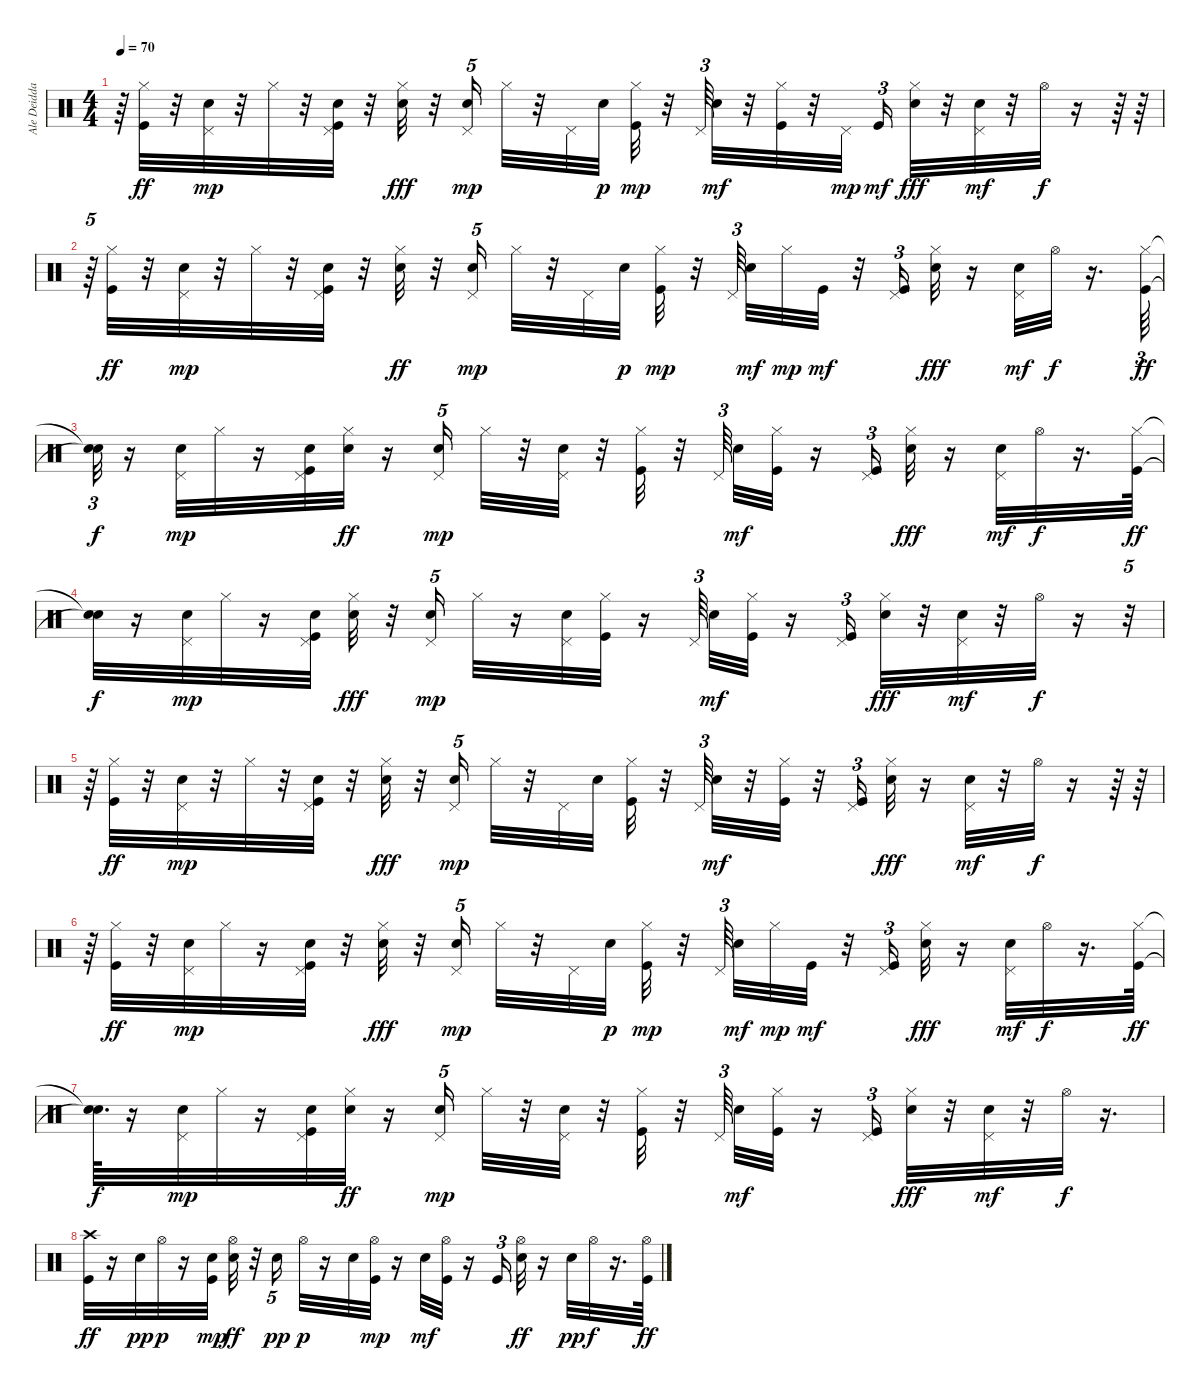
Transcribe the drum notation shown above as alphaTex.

\track ("Ale Deidda" "Ale Deidda") {instrument percussion}
\staff {score}
\articulation defaults
\ts (4 4)
\tempo 70
\clef neutral
\ks c
r.64{dy f} ("Kick (hit)" "Hi-Hat (closed)").32{dy ff} r.32 ("Snare (hit) 2" "Pedal Hi-Hat (hit)").32{dy mp} r.32 "Hi-Hat (closed)".32 r.32 ("Snare (hit) 2" "Pedal Hi-Hat (hit)" "Kick (hit)").32 r.32 ("Electric Snare (hit)" "Hi-Hat (closed)").32{dy fff} r.32 ("Snare (hit) 2" "Pedal Hi-Hat (hit)").16{tu (5 4) dy mp} "Hi-Hat (closed)".32 r.32 "Pedal Hi-Hat (hit)".32 "Snare (hit) 2".32{dy p} ("Hi-Hat (closed)" "Kick (hit)").32{dy mp} r.32 "Pedal Hi-Hat (hit)".64{tu (3 2)} "Snare (hit) 2".32{dy mf} r.32 ("Hi-Hat (closed)" "Kick (hit)").32 r.32 "Pedal Hi-Hat (hit)".32{dy mp} "Kick (hit)".16{tu (3 2) dy mf} ("Electric Snare (hit)" "Hi-Hat (closed)").32{dy fff} r.32 ("Snare (hit) 2" "Pedal Hi-Hat (hit)").32{dy mf} r.32 "Hi-Hat (open)".32{dy f} r.16 r.64 r.64 |
r.64{tu (5 4)} ("Kick (hit)" "Hi-Hat (closed)").32{dy ff} r.32 ("Snare (hit) 2" "Pedal Hi-Hat (hit)").32{dy mp} r.32 "Hi-Hat (closed)".32 r.32 ("Snare (hit) 2" "Pedal Hi-Hat (hit)" "Kick (hit)").32 r.32 ("Electric Snare (hit)" "Hi-Hat (closed)").32{dy ff} r.32 ("Snare (hit) 2" "Pedal Hi-Hat (hit)").16{tu (5 4) dy mp} "Hi-Hat (closed)".32 r.32 "Pedal Hi-Hat (hit)".32 "Snare (hit) 2".32{dy p} ("Hi-Hat (closed)" "Kick (hit)").32{dy mp} r.32 "Pedal Hi-Hat (hit)".64{tu (3 2) beam splitsecondary} "Snare (hit) 2".32{dy mf} "Hi-Hat (closed)".32{dy mp} "Kick (hit)".32{dy mf} r.32 ("Pedal Hi-Hat (hit)" "Kick (hit)").16{tu (3 2)} ("Electric Snare (hit)" "Hi-Hat (closed)").32{dy fff} r.16 ("Snare (hit) 2" "Pedal Hi-Hat (hit)").32{dy mf} "Hi-Hat (open)".32{dy f} r.16{d} ("Kick (hit)" "Hi-Hat (closed)").64{tu (3 2) dy ff} |
("Snare (hit)"{t} "Snare (hit)"{t}).32{tu (3 2) dy f} r.16 ("Snare (hit) 2" "Pedal Hi-Hat (hit)").32{dy mp} "Hi-Hat (closed)".32 r.16 ("Snare (hit) 2" "Pedal Hi-Hat (hit)" "Kick (hit)").32 ("Electric Snare (hit)" "Hi-Hat (closed)").32{dy ff} r.16 ("Snare (hit) 2" "Pedal Hi-Hat (hit)").16{tu (5 4) dy mp} "Hi-Hat (closed)".32 r.32 ("Pedal Hi-Hat (hit)" "Snare (hit) 2").32 r.32 ("Hi-Hat (closed)" "Kick (hit)").32 r.32 "Pedal Hi-Hat (hit)".64{tu (3 2) beam splitsecondary} "Snare (hit) 2".32{dy mf} ("Hi-Hat (closed)" "Kick (hit)").32 r.16 ("Pedal Hi-Hat (hit)" "Kick (hit)").16{tu (3 2)} ("Electric Snare (hit)" "Hi-Hat (closed)").32{dy fff} r.16 ("Snare (hit) 2" "Pedal Hi-Hat (hit)").32{dy mf} "Hi-Hat (open)".32{dy f} r.16{d} ("Kick (hit)" "Hi-Hat (closed)").64{dy ff} |
("Snare (hit)"{t} "Snare (hit)"{t}).32{dy f} r.16 ("Snare (hit) 2" "Pedal Hi-Hat (hit)").32{dy mp} "Hi-Hat (closed)".32 r.16 ("Snare (hit) 2" "Pedal Hi-Hat (hit)" "Kick (hit)").32 ("Electric Snare (hit)" "Hi-Hat (closed)").32{dy fff} r.32 ("Snare (hit) 2" "Pedal Hi-Hat (hit)").16{tu (5 4) dy mp} "Hi-Hat (closed)".32 r.16 ("Pedal Hi-Hat (hit)" "Snare (hit) 2").32 ("Hi-Hat (closed)" "Kick (hit)").32 r.16 "Pedal Hi-Hat (hit)".64{tu (3 2) beam splitsecondary} "Snare (hit) 2".32{dy mf} ("Hi-Hat (closed)" "Kick (hit)").32 r.16 ("Pedal Hi-Hat (hit)" "Kick (hit)").16{tu (3 2)} ("Electric Snare (hit)" "Hi-Hat (closed)").32{dy fff} r.32 ("Snare (hit) 2" "Pedal Hi-Hat (hit)").32{dy mf} r.32 "Hi-Hat (open)".32{dy f} r.16 r.32{tu (5 4)} |
r.64 ("Kick (hit)" "Hi-Hat (closed)").32{dy ff} r.32 ("Snare (hit) 2" "Pedal Hi-Hat (hit)").32{dy mp} r.32 "Hi-Hat (closed)".32 r.32 ("Snare (hit) 2" "Pedal Hi-Hat (hit)" "Kick (hit)").32 r.32 ("Electric Snare (hit)" "Hi-Hat (closed)").32{dy fff} r.32 ("Snare (hit) 2" "Pedal Hi-Hat (hit)").16{tu (5 4) dy mp} "Hi-Hat (closed)".32 r.32 "Pedal Hi-Hat (hit)".32 "Snare (hit) 2".32 ("Hi-Hat (closed)" "Kick (hit)").32 r.32 "Pedal Hi-Hat (hit)".64{tu (3 2)} "Snare (hit) 2".32{dy mf} r.32 ("Hi-Hat (closed)" "Kick (hit)").32 r.32 ("Pedal Hi-Hat (hit)" "Kick (hit)").16{tu (3 2)} ("Electric Snare (hit)" "Hi-Hat (closed)").32{dy fff} r.16 ("Snare (hit) 2" "Pedal Hi-Hat (hit)").32{dy mf} r.32 "Hi-Hat (open)".32{dy f} r.16 r.64 r.64 |
r.64 ("Kick (hit)" "Hi-Hat (closed)").32{dy ff} r.32 ("Snare (hit) 2" "Pedal Hi-Hat (hit)").32{dy mp} "Hi-Hat (closed)".32 r.16 ("Snare (hit) 2" "Pedal Hi-Hat (hit)" "Kick (hit)").32 r.32 ("Electric Snare (hit)" "Hi-Hat (closed)").32{dy fff} r.32 ("Snare (hit) 2" "Pedal Hi-Hat (hit)").16{tu (5 4) dy mp} "Hi-Hat (closed)".32 r.32 "Pedal Hi-Hat (hit)".32 "Snare (hit) 2".32{dy p} ("Hi-Hat (closed)" "Kick (hit)").32{dy mp} r.32 "Pedal Hi-Hat (hit)".64{tu (3 2) beam splitsecondary} "Snare (hit) 2".32{dy mf} "Hi-Hat (closed)".32{dy mp} "Kick (hit)".32{dy mf} r.32 ("Pedal Hi-Hat (hit)" "Kick (hit)").16{tu (3 2)} ("Electric Snare (hit)" "Hi-Hat (closed)").32{dy fff} r.16 ("Snare (hit) 2" "Pedal Hi-Hat (hit)").32{dy mf} "Hi-Hat (open)".32{dy f} r.16{d} ("Kick (hit)" "Hi-Hat (closed)").64{dy ff} |
("Snare (hit)"{t} "Snare (hit)"{t}).64{d dy f} r.16 ("Snare (hit) 2" "Pedal Hi-Hat (hit)").32{dy mp} "Hi-Hat (closed)".32 r.16 ("Snare (hit) 2" "Pedal Hi-Hat (hit)" "Kick (hit)").32 ("Electric Snare (hit)" "Hi-Hat (closed)").32{dy ff} r.16 ("Snare (hit) 2" "Pedal Hi-Hat (hit)").16{tu (5 4) dy mp} "Hi-Hat (closed)".32 r.32 ("Pedal Hi-Hat (hit)" "Snare (hit) 2").32 r.32 ("Hi-Hat (closed)" "Kick (hit)").32 r.32 "Pedal Hi-Hat (hit)".64{tu (3 2) beam splitsecondary} "Snare (hit) 2".32{dy mf} ("Hi-Hat (closed)" "Kick (hit)").32 r.16 ("Pedal Hi-Hat (hit)" "Kick (hit)").16{tu (3 2)} ("Electric Snare (hit)" "Hi-Hat (closed)").32{dy fff} r.32 ("Snare (hit) 2" "Pedal Hi-Hat (hit)").32{dy mf} r.32 "Hi-Hat (open)".32{dy f} r.16{d} |
("Kick (hit)" "Crash high (hit)").32{dy ff} r.16 "Snare (hit) 2".32{dy pp} "Hi-Hat (open)".32{dy p} r.16 ("Snare (hit) 2" "Kick (hit)").32{dy mp} ("Hi-Hat (open)" "Electric Snare (hit)").32{dy ff} r.32 "Snare (hit) 2".16{tu (5 4) dy pp} "Hi-Hat (open)".32{dy p} r.16 "Snare (hit) 2".32 ("Hi-Hat (open)" "Kick (hit)").32{dy mp} r.16 "Snare (hit) 2".32{dy mf} ("Hi-Hat (open)" "Kick (hit)").32 r.16 "Kick (hit)".16{tu (3 2)} ("Electric Snare (hit)" "Hi-Hat (open)").32{dy ff} r.16 "Snare (hit) 2".32{dy pp} "Hi-Hat (open)".32{dy f} r.16{d} ("Kick (hit)" "Hi-Hat (open)").64{dy ff}
